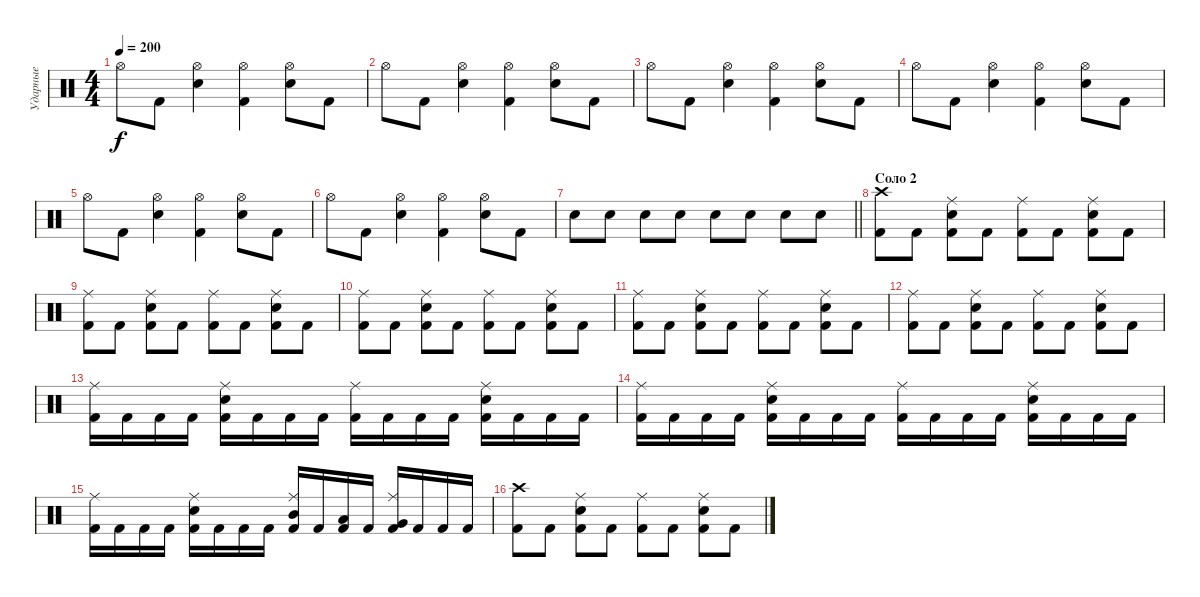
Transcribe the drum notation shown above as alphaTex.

\track ("Ударные" "Ударные") {instrument percussion}
\staff {score}
\articulation defaults
\ts (4 4)
\tempo 200
\clef neutral
\ks c "Hi-Hat (open)".8{dy f} "Kick (hit) 2".8
("Hi-Hat (open)" "Electric Snare (hit)").4 ("Hi-Hat (open)" "Kick (hit) 2").4 ("Hi-Hat (open)" "Electric Snare (hit)").8 "Kick (hit) 2".8 |
"Hi-Hat (open)".8 "Kick (hit) 2".8 ("Hi-Hat (open)" "Electric Snare (hit)").4 ("Hi-Hat (open)" "Kick (hit) 2").4 ("Hi-Hat (open)" "Electric Snare (hit)").8 "Kick (hit) 2".8 |
"Hi-Hat (open)".8 "Kick (hit) 2".8 ("Hi-Hat (open)" "Electric Snare (hit)").4 ("Hi-Hat (open)" "Kick (hit) 2").4 ("Hi-Hat (open)" "Electric Snare (hit)").8 "Kick (hit) 2".8 |
"Hi-Hat (open)".8 "Kick (hit) 2".8 ("Hi-Hat (open)" "Electric Snare (hit)").4 ("Hi-Hat (open)" "Kick (hit) 2").4 ("Hi-Hat (open)" "Electric Snare (hit)").8 "Kick (hit) 2".8 |
"Hi-Hat (open)".8 "Kick (hit) 2".8 ("Hi-Hat (open)" "Electric Snare (hit)").4 ("Hi-Hat (open)" "Kick (hit) 2").4 ("Hi-Hat (open)" "Electric Snare (hit)").8 "Kick (hit) 2".8 |
"Hi-Hat (open)".8 "Kick (hit) 2".8 ("Hi-Hat (open)" "Electric Snare (hit)").4 ("Hi-Hat (open)" "Kick (hit) 2").4 ("Hi-Hat (open)" "Electric Snare (hit)").8 "Kick (hit) 2".8 |
\barLineRight lightlight "Electric Snare (hit)".8 "Electric Snare (hit)".8 "Electric Snare (hit)".8 "Electric Snare (hit)".8 "Electric Snare (hit)".8 "Electric Snare (hit)".8 "Electric Snare (hit)".8 "Electric Snare (hit)".8
|
\section ("" "Соло 2")
("Crash high (hit)" "Kick (hit) 2").8 "Kick (hit) 2".8 ("Ride (middle)" "Electric Snare (hit)" "Kick (hit) 2").8 "Kick (hit) 2".8 ("Ride (middle)" "Kick (hit) 2").8 "Kick (hit) 2".8 ("Ride (middle)" "Electric Snare (hit)" "Kick (hit) 2").8 "Kick (hit) 2".8 |
("Ride (middle)" "Kick (hit) 2").8 "Kick (hit) 2".8 ("Ride (middle)" "Electric Snare (hit)" "Kick (hit) 2").8 "Kick (hit) 2".8 ("Ride (middle)" "Kick (hit) 2").8 "Kick (hit) 2".8 ("Ride (middle)" "Electric Snare (hit)" "Kick (hit) 2").8 "Kick (hit) 2".8 |
("Ride (middle)" "Kick (hit) 2").8 "Kick (hit) 2".8 ("Ride (middle)" "Electric Snare (hit)" "Kick (hit) 2").8 "Kick (hit) 2".8 ("Ride (middle)" "Kick (hit) 2").8 "Kick (hit) 2".8 ("Ride (middle)" "Electric Snare (hit)" "Kick (hit) 2").8 "Kick (hit) 2".8 |
("Ride (middle)" "Kick (hit) 2").8 "Kick (hit) 2".8 ("Ride (middle)" "Electric Snare (hit)" "Kick (hit) 2").8 "Kick (hit) 2".8 ("Ride (middle)" "Kick (hit) 2").8 "Kick (hit) 2".8 ("Ride (middle)" "Electric Snare (hit)" "Kick (hit) 2").8 "Kick (hit) 2".8 |
("Ride (middle)" "Kick (hit) 2").8 "Kick (hit) 2".8 ("Ride (middle)" "Electric Snare (hit)" "Kick (hit) 2").8 "Kick (hit) 2".8 ("Ride (middle)" "Kick (hit) 2").8 "Kick (hit) 2".8 ("Ride (middle)" "Electric Snare (hit)" "Kick (hit) 2").8 "Kick (hit) 2".8 |
("Ride (middle)" "Kick (hit) 2").16 "Kick (hit) 2".16 "Kick (hit) 2".16 "Kick (hit) 2".16 ("Ride (middle)" "Electric Snare (hit)" "Kick (hit) 2").16 "Kick (hit) 2".16 "Kick (hit) 2".16 "Kick (hit) 2".16 ("Ride (middle)" "Kick (hit) 2").16 "Kick (hit) 2".16 "Kick (hit) 2".16 "Kick (hit) 2".16 ("Ride (middle)" "Electric Snare (hit)" "Kick (hit) 2").16 "Kick (hit) 2".16 "Kick (hit) 2".16 "Kick (hit) 2".16 |
("Ride (middle)" "Kick (hit) 2").16 "Kick (hit) 2".16 "Kick (hit) 2".16 "Kick (hit) 2".16 ("Ride (middle)" "Electric Snare (hit)" "Kick (hit) 2").16 "Kick (hit) 2".16 "Kick (hit) 2".16 "Kick (hit) 2".16 ("Ride (middle)" "Kick (hit) 2").16 "Kick (hit) 2".16 "Kick (hit) 2".16 "Kick (hit) 2".16 ("Ride (middle)" "Electric Snare (hit)" "Kick (hit) 2").16 "Kick (hit) 2".16 "Kick (hit) 2".16 "Kick (hit) 2".16 |
("Ride (middle)" "Kick (hit) 2").16 "Kick (hit) 2".16 "Kick (hit) 2".16 "Kick (hit) 2".16 ("Ride (middle)" "Electric Snare (hit)" "Kick (hit) 2").16 "Kick (hit) 2".16 "Kick (hit) 2".16 "Kick (hit) 2".16 ("Ride (middle)" "Mid Tom (hit)" "Kick (hit) 2").16 "Kick (hit) 2".16 ("Low Tom (hit)" "Kick (hit) 2").16 "Kick (hit) 2".16 ("Ride (middle)" "Very Low Tom (hit)" "Kick (hit) 2").16 "Kick (hit) 2".16 "Kick (hit) 2".16 "Kick (hit) 2".16 |
("Crash high (hit)" "Kick (hit) 2").8 "Kick (hit) 2".8 ("Ride (middle)" "Electric Snare (hit)" "Kick (hit) 2").8 "Kick (hit) 2".8 ("Ride (middle)" "Kick (hit) 2").8 "Kick (hit) 2".8 ("Ride (middle)" "Electric Snare (hit)" "Kick (hit) 2").8 "Kick (hit) 2".8
